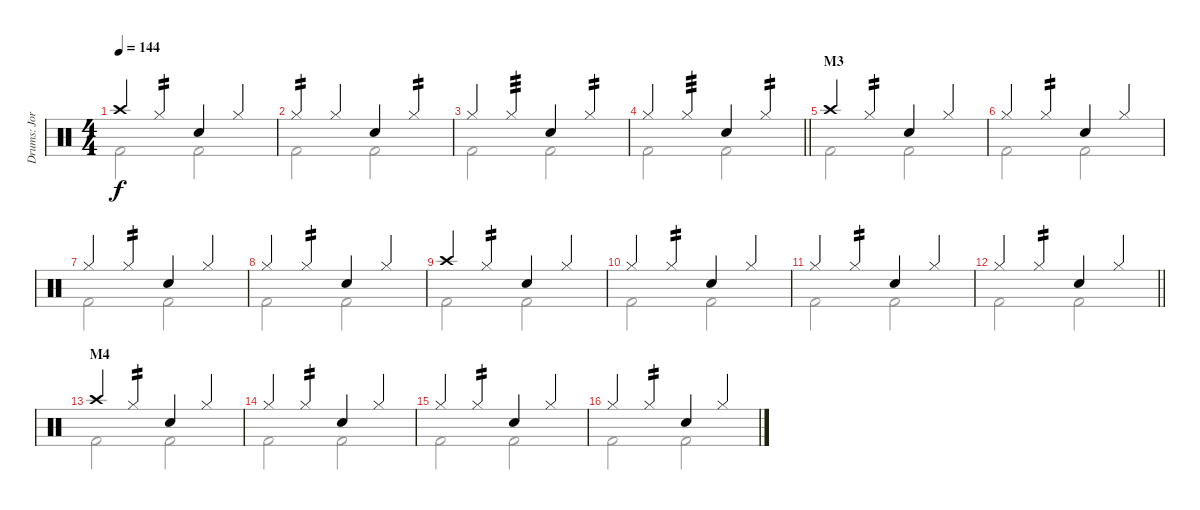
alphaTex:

\track ("Drums: Jorg" "Drums: Jor") {instrument percussion}
\staff {score}
\articulation defaults
\voice
\ts (4 4)
\tempo 144
\clef neutral
\ks c "Crash high (hit)".4{dy f} "Hi-Hat (closed)".4{tp 2} "Snare (hit) 2".4 "Hi-Hat (closed)".4
|
"Hi-Hat (closed)".4{tp 2} "Hi-Hat (closed)".4 "Snare (hit) 2".4 "Hi-Hat (closed)".4{tp 2} |
"Hi-Hat (closed)".4 "Hi-Hat (closed)".4{tp 3} "Snare (hit) 2".4 "Hi-Hat (closed)".4{tp 2} |
\barLineRight lightlight "Hi-Hat (closed)".4 "Hi-Hat (closed)".4{tp 3} "Snare (hit) 2".4 "Hi-Hat (closed)".4{tp 2}
|
\section ("" "M3")
"Crash high (hit)".4 "Hi-Hat (closed)".4{tp 2} "Snare (hit) 2".4 "Hi-Hat (closed)".4 |
"Hi-Hat (closed)".4 "Hi-Hat (closed)".4{tp 2} "Snare (hit) 2".4 "Hi-Hat (closed)".4 |
"Hi-Hat (closed)".4 "Hi-Hat (closed)".4{tp 2} "Snare (hit) 2".4 "Hi-Hat (closed)".4 |
"Hi-Hat (closed)".4 "Hi-Hat (closed)".4{tp 2} "Snare (hit) 2".4 "Hi-Hat (closed)".4 |
"Crash high (hit)".4 "Hi-Hat (closed)".4{tp 2} "Snare (hit) 2".4 "Hi-Hat (closed)".4 |
"Hi-Hat (closed)".4 "Hi-Hat (closed)".4{tp 2} "Snare (hit) 2".4 "Hi-Hat (closed)".4 |
"Hi-Hat (closed)".4 "Hi-Hat (closed)".4{tp 2} "Snare (hit) 2".4 "Hi-Hat (closed)".4 |
\barLineRight lightlight "Hi-Hat (closed)".4 "Hi-Hat (closed)".4{tp 2} "Snare (hit) 2".4 "Hi-Hat (closed)".4
|
\section ("" "M4")
"Crash high (hit)".4 "Hi-Hat (closed)".4{tp 2} "Snare (hit) 2".4 "Hi-Hat (closed)".4 |
"Hi-Hat (closed)".4 "Hi-Hat (closed)".4{tp 2} "Snare (hit) 2".4 "Hi-Hat (closed)".4 |
"Hi-Hat (closed)".4 "Hi-Hat (closed)".4{tp 2} "Snare (hit) 2".4 "Hi-Hat (closed)".4 |
"Hi-Hat (closed)".4 "Hi-Hat (closed)".4{tp 2} "Snare (hit) 2".4 "Hi-Hat (closed)".4
\voice
\clef neutral
\ottava regular
\simile none
\ks c "Kick (hit) 2".2{dy f} "Kick (hit) 2".2
|
"Kick (hit) 2".2 "Kick (hit) 2".2 |
"Kick (hit) 2".2 "Kick (hit) 2".2 |
\barLineRight lightlight "Kick (hit) 2".2 "Kick (hit) 2".2
|
"Kick (hit) 2".2 "Kick (hit) 2".2 |
"Kick (hit) 2".2 "Kick (hit) 2".2 |
"Kick (hit) 2".2 "Kick (hit) 2".2 |
"Kick (hit) 2".2 "Kick (hit) 2".2 |
"Kick (hit) 2".2 "Kick (hit) 2".2 |
"Kick (hit) 2".2 "Kick (hit) 2".2 |
"Kick (hit) 2".2 "Kick (hit) 2".2 |
\barLineRight lightlight "Kick (hit) 2".2 "Kick (hit) 2".2
|
"Kick (hit) 2".2 "Kick (hit) 2".2 |
"Kick (hit) 2".2 "Kick (hit) 2".2 |
"Kick (hit) 2".2 "Kick (hit) 2".2 |
"Kick (hit) 2".2 "Kick (hit) 2".2
